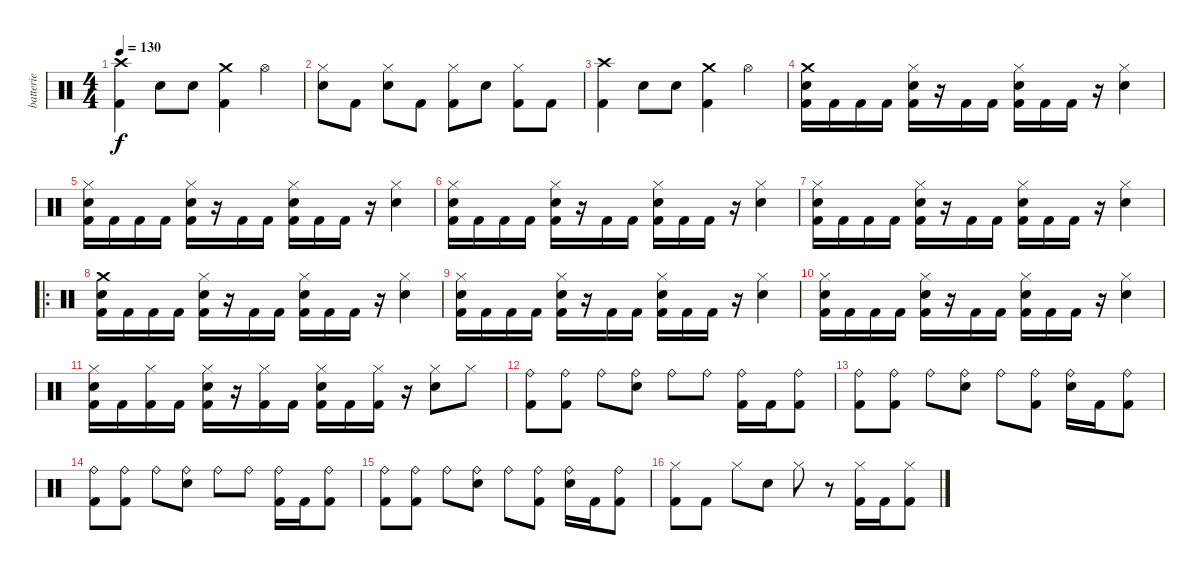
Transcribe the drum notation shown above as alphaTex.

\track ("batterie" "batterie") {instrument percussion}
\staff {score}
\articulation defaults
\ts (4 4)
\tempo 130
\clef neutral
\ks c
("Crash high (hit)" "Kick (hit) 2").4{dy f} "Snare (hit) 2".8 "Snare (hit) 2".8 ("Crash medium (hit)" "Kick (hit) 2").4 "Hi-Hat (open)".4 |
("Snare (hit) 2" "Hi-Hat (closed)").8 "Kick (hit) 2".8 ("Snare (hit) 2" "Hi-Hat (closed)").8 "Kick (hit) 2".8 ("Kick (hit) 2" "Hi-Hat (closed)").8 "Snare (hit) 2".8 ("Kick (hit) 2" "Hi-Hat (closed)").8 "Kick (hit) 2".8 |
("Crash high (hit)" "Kick (hit) 2").4 "Snare (hit) 2".8 "Snare (hit) 2".8 ("Crash medium (hit)" "Kick (hit) 2").4 "Hi-Hat (open)".4 |
("Crash medium (hit)" "Snare (hit) 2" "Kick (hit) 2").16 "Kick (hit) 2".16 "Kick (hit) 2".16 "Kick (hit) 2".16 ("Snare (hit) 2" "Kick (hit) 2" "Hi-Hat (closed)").16 r.16 "Kick (hit) 2".16 "Kick (hit) 2".16 ("Snare (hit) 2" "Kick (hit) 2" "Hi-Hat (closed)").16 "Kick (hit) 2".16 "Kick (hit) 2".16 r.16 ("Snare (hit) 2" "Hi-Hat (closed)").4 |
("Snare (hit) 2" "Kick (hit) 2" "Hi-Hat (closed)").16 "Kick (hit) 2".16 "Kick (hit) 2".16 "Kick (hit) 2".16 ("Snare (hit) 2" "Kick (hit) 2" "Hi-Hat (closed)").16 r.16 "Kick (hit) 2".16 "Kick (hit) 2".16 ("Snare (hit) 2" "Kick (hit) 2" "Hi-Hat (closed)").16 "Kick (hit) 2".16 "Kick (hit) 2".16 r.16 ("Snare (hit) 2" "Hi-Hat (closed)").4 |
("Snare (hit) 2" "Kick (hit) 2" "Hi-Hat (closed)").16 "Kick (hit) 2".16 "Kick (hit) 2".16 "Kick (hit) 2".16 ("Snare (hit) 2" "Kick (hit) 2" "Hi-Hat (closed)").16 r.16 "Kick (hit) 2".16 "Kick (hit) 2".16 ("Snare (hit) 2" "Kick (hit) 2" "Hi-Hat (closed)").16 "Kick (hit) 2".16 "Kick (hit) 2".16 r.16 ("Snare (hit) 2" "Hi-Hat (closed)").4 |
("Snare (hit) 2" "Kick (hit) 2" "Hi-Hat (closed)").16 "Kick (hit) 2".16 "Kick (hit) 2".16 "Kick (hit) 2".16 ("Snare (hit) 2" "Kick (hit) 2" "Hi-Hat (closed)").16 r.16 "Kick (hit) 2".16 "Kick (hit) 2".16 ("Snare (hit) 2" "Kick (hit) 2" "Hi-Hat (closed)").16 "Kick (hit) 2".16 "Kick (hit) 2".16 r.16 ("Snare (hit) 2" "Hi-Hat (closed)").4 |
\ro
("Crash medium (hit)" "Snare (hit) 2" "Kick (hit) 2").16 "Kick (hit) 2".16 "Kick (hit) 2".16 "Kick (hit) 2".16 ("Snare (hit) 2" "Kick (hit) 2" "Hi-Hat (closed)").16 r.16 "Kick (hit) 2".16 "Kick (hit) 2".16 ("Snare (hit) 2" "Kick (hit) 2" "Hi-Hat (closed)").16 "Kick (hit) 2".16 "Kick (hit) 2".16 r.16 ("Snare (hit) 2" "Hi-Hat (closed)").4 |
("Snare (hit) 2" "Kick (hit) 2" "Hi-Hat (closed)").16 "Kick (hit) 2".16 "Kick (hit) 2".16 "Kick (hit) 2".16 ("Snare (hit) 2" "Kick (hit) 2" "Hi-Hat (closed)").16 r.16 "Kick (hit) 2".16 "Kick (hit) 2".16 ("Snare (hit) 2" "Kick (hit) 2" "Hi-Hat (closed)").16 "Kick (hit) 2".16 "Kick (hit) 2".16 r.16 ("Snare (hit) 2" "Hi-Hat (closed)").4 |
("Snare (hit) 2" "Kick (hit) 2" "Hi-Hat (closed)").16 "Kick (hit) 2".16 "Kick (hit) 2".16 "Kick (hit) 2".16 ("Snare (hit) 2" "Kick (hit) 2" "Hi-Hat (closed)").16 r.16 "Kick (hit) 2".16 "Kick (hit) 2".16 ("Snare (hit) 2" "Kick (hit) 2" "Hi-Hat (closed)").16 "Kick (hit) 2".16 "Kick (hit) 2".16 r.16 ("Snare (hit) 2" "Hi-Hat (closed)").4 |
("Snare (hit) 2" "Kick (hit) 2" "Hi-Hat (closed)").16 "Kick (hit) 2".16 ("Kick (hit) 2" "Hi-Hat (closed)").16 "Kick (hit) 2".16 ("Snare (hit) 2" "Kick (hit) 2" "Hi-Hat (closed)").16 r.16 ("Kick (hit) 2" "Hi-Hat (closed)").16 "Kick (hit) 2".16 ("Snare (hit) 2" "Kick (hit) 2" "Hi-Hat (closed)").16 "Kick (hit) 2".16 ("Kick (hit) 2" "Hi-Hat (closed)").16 r.16 ("Snare (hit) 2" "Hi-Hat (closed)").8 "Hi-Hat (closed)".8 |
("Kick (hit) 2" "Ride (bell)").8 ("Kick (hit) 2" "Ride (bell)").8 "Ride (bell)".8 ("Snare (hit) 2" "Ride (bell)").8 "Ride (bell)".8 "Ride (bell)".8 ("Kick (hit) 2" "Ride (bell)").16 "Kick (hit) 2".16 ("Kick (hit) 2" "Ride (bell)").8 |
("Kick (hit) 2" "Ride (bell)").8 ("Kick (hit) 2" "Ride (bell)").8 "Ride (bell)".8 ("Snare (hit) 2" "Ride (bell)").8 "Ride (bell)".8 ("Kick (hit) 2" "Ride (bell)").8 ("Snare (hit) 2" "Ride (bell)").16 "Kick (hit) 2".16 ("Kick (hit) 2" "Ride (bell)").8 |
("Kick (hit) 2" "Ride (bell)").8 ("Kick (hit) 2" "Ride (bell)").8 "Ride (bell)".8 ("Snare (hit) 2" "Ride (bell)").8 "Ride (bell)".8 "Ride (bell)".8 ("Kick (hit) 2" "Ride (bell)").16 "Kick (hit) 2".16 ("Kick (hit) 2" "Ride (bell)").8 |
("Kick (hit) 2" "Ride (bell)").8 ("Kick (hit) 2" "Ride (bell)").8 "Ride (bell)".8 ("Snare (hit) 2" "Ride (bell)").8 "Ride (bell)".8 ("Kick (hit) 2" "Ride (bell)").8 ("Snare (hit) 2" "Ride (bell)").16 "Kick (hit) 2".16 ("Kick (hit) 2" "Ride (bell)").8 |
("Kick (hit) 2" "Hi-Hat (closed)").8 "Kick (hit) 2".8 "Hi-Hat (closed)".8 "Snare (hit) 2".8 "Hi-Hat (closed)".8 r.8 ("Kick (hit) 2" "Hi-Hat (closed)").16 "Kick (hit) 2".16 ("Kick (hit) 2" "Hi-Hat (closed)").8
